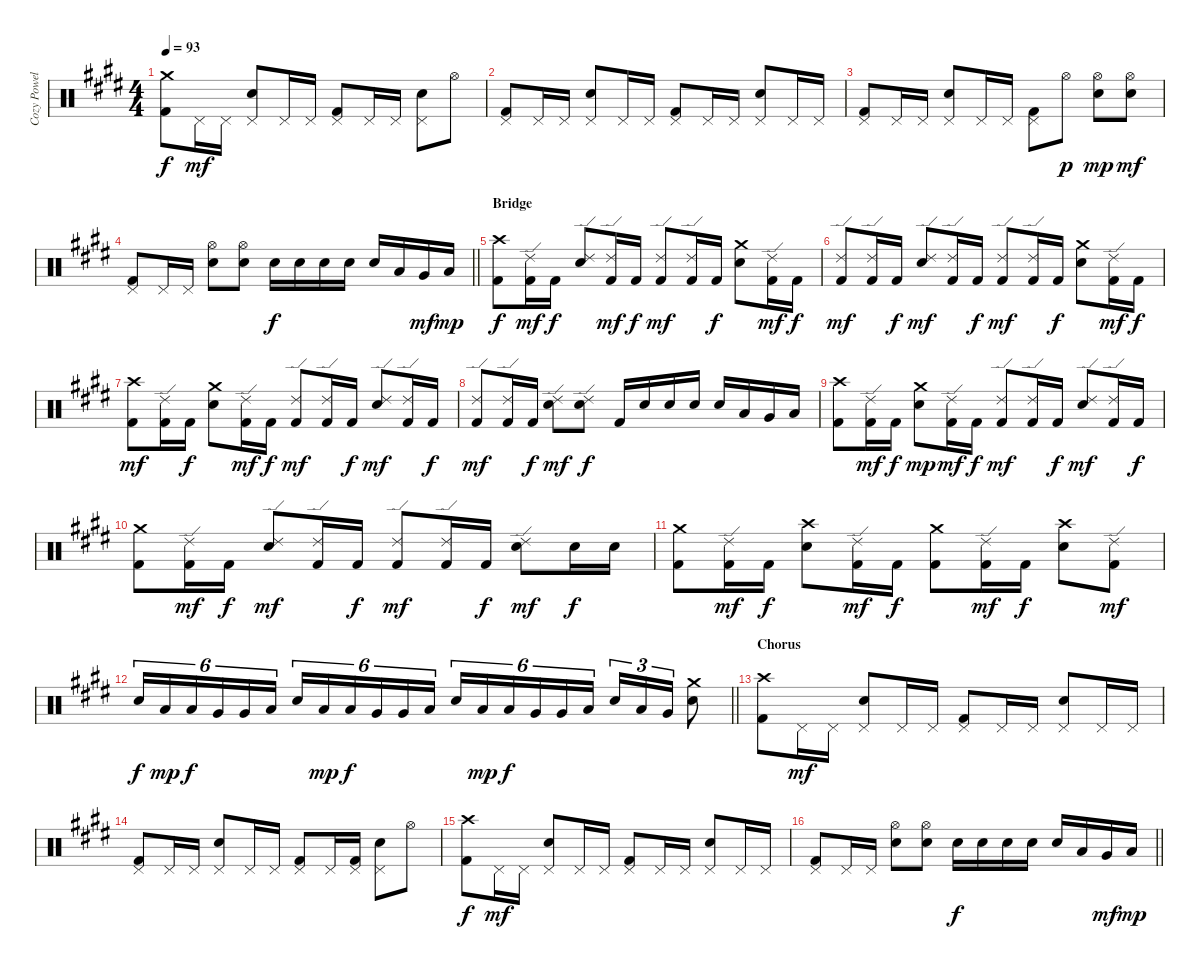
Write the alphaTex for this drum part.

\track ("Cozy Powell" "Cozy Powel") {instrument percussion}
\staff {score}
\articulation defaults
\ts (4 4)
\tempo 93
\clef neutral
\ks c#minor
("Kick (hit) 2" "Crash medium (hit)").8{dy f} "Pedal Hi-Hat (hit)".16{dy mf} "Pedal Hi-Hat (hit)".16 ("Pedal Hi-Hat (hit)" "Snare (hit) 2").8 "Pedal Hi-Hat (hit)".16 "Pedal Hi-Hat (hit)".16 ("Kick (hit) 2" "Pedal Hi-Hat (hit)").8 "Pedal Hi-Hat (hit)".16 "Pedal Hi-Hat (hit)".16 ("Pedal Hi-Hat (hit)" "Snare (hit) 2").8 "Hi-Hat (open)".8 |
("Kick (hit) 2" "Pedal Hi-Hat (hit)").8 "Pedal Hi-Hat (hit)".16 "Pedal Hi-Hat (hit)".16 ("Pedal Hi-Hat (hit)" "Snare (hit) 2").8 "Pedal Hi-Hat (hit)".16 "Pedal Hi-Hat (hit)".16 ("Kick (hit) 2" "Pedal Hi-Hat (hit)").8 "Pedal Hi-Hat (hit)".16 "Pedal Hi-Hat (hit)".16 ("Pedal Hi-Hat (hit)" "Snare (hit) 2").8 "Pedal Hi-Hat (hit)".16 "Pedal Hi-Hat (hit)".16 |
("Kick (hit) 2" "Pedal Hi-Hat (hit)").8 "Pedal Hi-Hat (hit)".16 "Pedal Hi-Hat (hit)".16 ("Pedal Hi-Hat (hit)" "Snare (hit) 2").8 "Pedal Hi-Hat (hit)".16 "Pedal Hi-Hat (hit)".16 ("Kick (hit) 2" "Pedal Hi-Hat (hit)").8 "Hi-Hat (open)".8{dy p} ("Hi-Hat (open)" "Snare (hit) 2").8{dy mp} ("Hi-Hat (open)" "Snare (hit) 2").8{dy mf} |
\barLineRight lightlight
("Kick (hit) 2" "Pedal Hi-Hat (hit)").8 "Pedal Hi-Hat (hit)".16 "Pedal Hi-Hat (hit)".16 ("Hi-Hat (open)" "Snare (hit) 2").8 ("Hi-Hat (open)" "Snare (hit) 2").8 "Snare (hit) 2".16{dy f} "Snare (hit) 2".16 "Snare (hit) 2".16 "Snare (hit) 2".16 "Snare (hit) 2".16 "Low Tom (hit)".16 "Very Low Tom (hit)".16{dy mf} "Low Floor Tom (hit)".16{dy mp} |
\section ("" "Bridge")
("Kick (hit) 2" "Crash high (hit)").8{dy f} ("Kick (hit) 2" "Ride (edge) 2").16{dy mf} "Kick (hit) 2".16{dy f} ("Ride (edge) 2" "Snare (hit) 2").8 ("Kick (hit) 2" "Ride (edge) 2").16{dy mf} "Kick (hit) 2".16{dy f} ("Kick (hit) 2" "Ride (edge) 2").8{dy mf} ("Kick (hit) 2" "Ride (edge) 2").16 "Kick (hit) 2".16{dy f} ("Crash medium (hit)" "Snare (hit) 2").8 ("Kick (hit) 2" "Ride (edge) 2").16{dy mf} "Kick (hit) 2".16{dy f} |
("Kick (hit) 2" "Ride (edge) 2").8{dy mf} ("Kick (hit) 2" "Ride (edge) 2").16 "Kick (hit) 2".16{dy f} ("Ride (edge) 2" "Snare (hit) 2").8{dy mf} ("Kick (hit) 2" "Ride (edge) 2").16 "Kick (hit) 2".16{dy f} ("Kick (hit) 2" "Ride (edge) 2").8{dy mf} ("Kick (hit) 2" "Ride (edge) 2").16 "Kick (hit) 2".16{dy f} ("Crash medium (hit)" "Snare (hit) 2").8 ("Kick (hit) 2" "Ride (edge) 2").16{dy mf} "Kick (hit) 2".16{dy f} |
("Kick (hit) 2" "Crash high (hit)").8{dy mf} ("Kick (hit) 2" "Ride (edge) 2").16 "Kick (hit) 2".16{dy f} ("Crash medium (hit)" "Snare (hit) 2").8 ("Kick (hit) 2" "Ride (edge) 2").16{dy mf} "Kick (hit) 2".16{dy f} ("Kick (hit) 2" "Ride (edge) 2").8{dy mf} ("Kick (hit) 2" "Ride (edge) 2").16 "Kick (hit) 2".16{dy f} ("Ride (edge) 2" "Snare (hit) 2").8{dy mf} ("Kick (hit) 2" "Ride (edge) 2").16 "Kick (hit) 2".16{dy f} |
("Kick (hit) 2" "Ride (edge) 2").8{dy mf} ("Kick (hit) 2" "Ride (edge) 2").16 "Kick (hit) 2".16{dy f} ("Ride (edge) 2" "Snare (hit) 2").8{dy mf} ("Ride (edge) 2" "Snare (hit) 2").8{dy f} "Kick (hit) 2".16 "Snare (hit) 2".16 "Snare (hit) 2".16 "Snare (hit) 2".16 "Snare (hit) 2".16 "Low Tom (hit)".16 "Very Low Tom (hit)".16 "Low Floor Tom (hit)".16 |
("Kick (hit) 2" "Crash high (hit)").8 ("Kick (hit) 2" "Ride (edge) 2").16{dy mf} "Kick (hit) 2".16{dy f} ("Crash medium (hit)" "Snare (hit) 2").8{dy mp} ("Kick (hit) 2" "Ride (edge) 2").16{dy mf} "Kick (hit) 2".16{dy f} ("Kick (hit) 2" "Ride (edge) 2").8{dy mf} ("Kick (hit) 2" "Ride (edge) 2").16 "Kick (hit) 2".16{dy f} ("Ride (edge) 2" "Snare (hit) 2").8{dy mf} ("Kick (hit) 2" "Ride (edge) 2").16 "Kick (hit) 2".16{dy f} |
("Kick (hit) 2" "Crash medium (hit)").8 ("Kick (hit) 2" "Ride (edge) 2").16{dy mf} "Kick (hit) 2".16{dy f} ("Ride (edge) 2" "Snare (hit) 2").8{dy mf} ("Kick (hit) 2" "Ride (edge) 2").16 "Kick (hit) 2".16{dy f} ("Kick (hit) 2" "Ride (edge) 2").8{dy mf} ("Kick (hit) 2" "Ride (edge) 2").16 "Kick (hit) 2".16{dy f} ("Ride (edge) 2" "Snare (hit) 2").8{dy mf} "Snare (hit) 2".16{dy f} "Snare (hit) 2".16 |
("Kick (hit) 2" "Crash medium (hit)").8 ("Kick (hit) 2" "Ride (edge) 2").16{dy mf} "Kick (hit) 2".16{dy f} ("Crash high (hit)" "Snare (hit) 2").8 ("Kick (hit) 2" "Ride (edge) 2").16{dy mf} "Kick (hit) 2".16{dy f} ("Kick (hit) 2" "Crash medium (hit)").8 ("Kick (hit) 2" "Ride (edge) 2").16{dy mf} "Kick (hit) 2".16{dy f} ("Crash high (hit)" "Snare (hit) 2").8 ("Kick (hit) 2" "Ride (edge) 2").8{dy mf} |
\barLineRight lightlight "Snare (hit) 2".16{tu (6 4) dy f} "Low Tom (hit)".16{tu (6 4) dy mp} "Low Tom (hit)".16{tu (6 4) dy f} "Very Low Tom (hit)".16{tu (6 4)} "Very Low Tom (hit)".16{tu (6 4)} "Low Floor Tom (hit)".16{tu (6 4)} "Snare (hit) 2".16{tu (6 4)} "Low Tom (hit)".16{tu (6 4) dy mp} "Low Tom (hit)".16{tu (6 4) dy f} "Very Low Tom (hit)".16{tu (6 4)} "Very Low Tom (hit)".16{tu (6 4)} "Low Floor Tom (hit)".16{tu (6 4)} "Snare (hit) 2".16{tu (6 4)} "Low Tom (hit)".16{tu (6 4) dy mp} "Low Tom (hit)".16{tu (6 4) dy f} "Very Low Tom (hit)".16{tu (6 4)} "Very Low Tom (hit)".16{tu (6 4)} "Low Floor Tom (hit)".16{tu (6 4)} "Snare (hit) 2".16{tu (3 2)} "Low Tom (hit)".16{tu (3 2)} "Very Low Tom (hit)".16{tu (3 2)}
("Crash medium (hit)" "Snare (hit) 2").8 |
\section ("" "Chorus")
("Kick (hit) 2" "Crash high (hit)").8 "Pedal Hi-Hat (hit)".16{dy mf} "Pedal Hi-Hat (hit)".16 ("Pedal Hi-Hat (hit)" "Snare (hit) 2").8 "Pedal Hi-Hat (hit)".16 "Pedal Hi-Hat (hit)".16 ("Kick (hit) 2" "Pedal Hi-Hat (hit)").8 "Pedal Hi-Hat (hit)".16 "Pedal Hi-Hat (hit)".16 ("Pedal Hi-Hat (hit)" "Snare (hit) 2").8 "Pedal Hi-Hat (hit)".16 "Pedal Hi-Hat (hit)".16 |
("Kick (hit) 2" "Pedal Hi-Hat (hit)").8 "Pedal Hi-Hat (hit)".16 "Pedal Hi-Hat (hit)".16 ("Pedal Hi-Hat (hit)" "Snare (hit) 2").8 "Pedal Hi-Hat (hit)".16 "Pedal Hi-Hat (hit)".16 ("Kick (hit) 2" "Pedal Hi-Hat (hit)").8 "Pedal Hi-Hat (hit)".16 ("Kick (hit) 2" "Pedal Hi-Hat (hit)").16 ("Pedal Hi-Hat (hit)" "Snare (hit) 2").8 "Hi-Hat (open)".8 |
("Kick (hit) 2" "Crash high (hit)").8{dy f} "Pedal Hi-Hat (hit)".16{dy mf} "Pedal Hi-Hat (hit)".16 ("Pedal Hi-Hat (hit)" "Snare (hit) 2").8 "Pedal Hi-Hat (hit)".16 "Pedal Hi-Hat (hit)".16 ("Kick (hit) 2" "Pedal Hi-Hat (hit)").8 "Pedal Hi-Hat (hit)".16 "Pedal Hi-Hat (hit)".16 ("Pedal Hi-Hat (hit)" "Snare (hit) 2").8 "Pedal Hi-Hat (hit)".16 "Pedal Hi-Hat (hit)".16 |
\barLineRight lightlight
("Kick (hit) 2" "Pedal Hi-Hat (hit)").8 "Pedal Hi-Hat (hit)".16 "Pedal Hi-Hat (hit)".16 ("Hi-Hat (open)" "Snare (hit) 2").8 ("Hi-Hat (open)" "Snare (hit) 2").8 "Snare (hit) 2".16{dy f} "Snare (hit) 2".16 "Snare (hit) 2".16 "Snare (hit) 2".16 "Snare (hit) 2".16 "Low Tom (hit)".16 "Very Low Tom (hit)".16{dy mf} "Low Floor Tom (hit)".16{dy mp}
